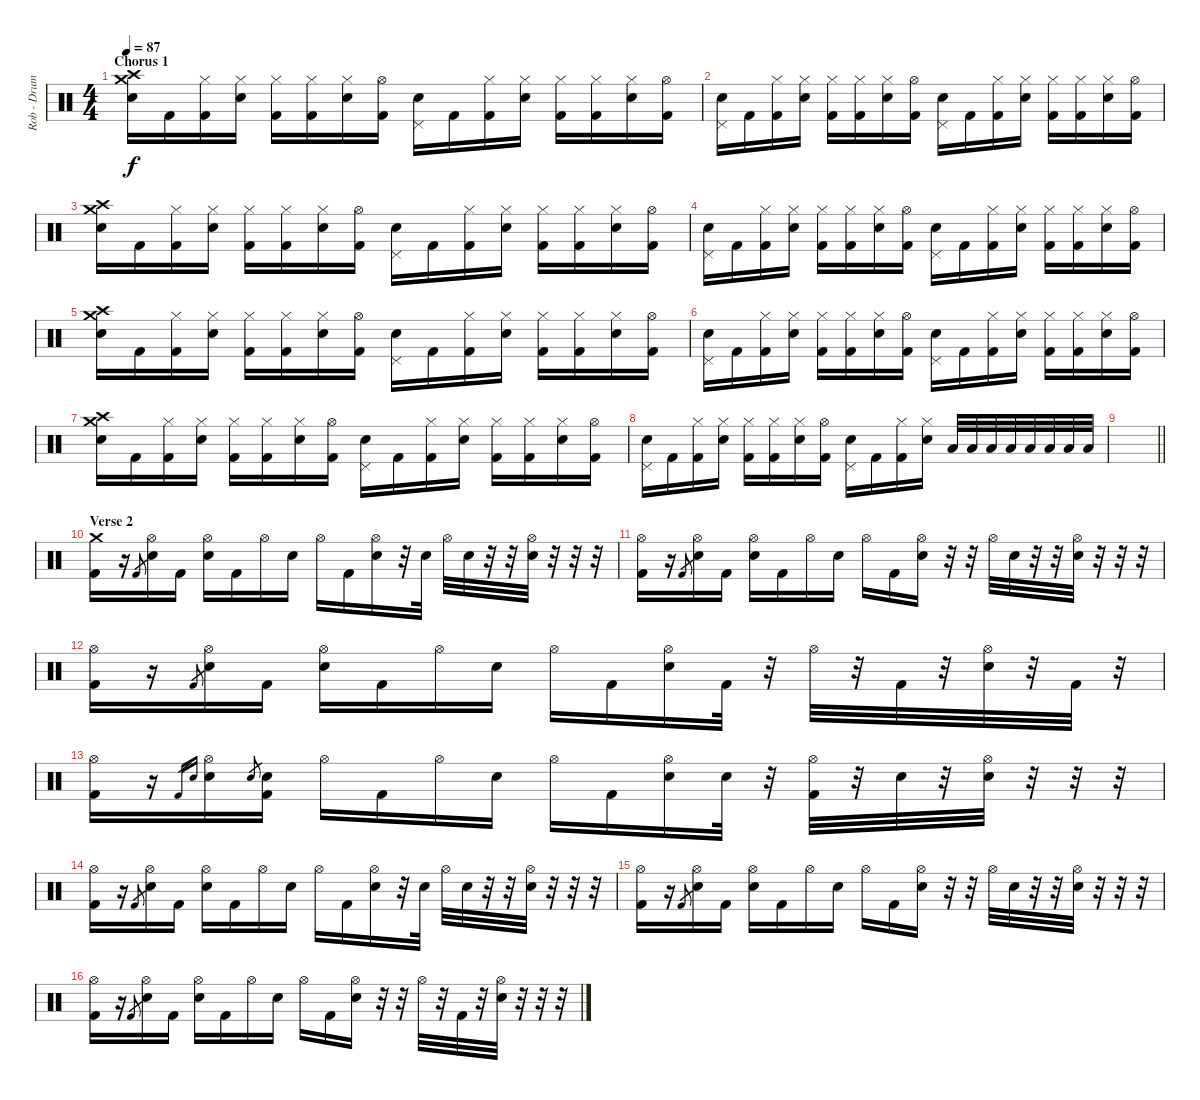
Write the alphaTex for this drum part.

\track ("Rob - Drums" "Rob - Drum") {instrument percussion}
\staff {score}
\articulation defaults
\ts (4 4)
\section ("" "Chorus 1")
\tempo 87
\clef neutral
\ks c
("Crash medium (hit)" "Crash high (hit)" "Electric Snare (hit)").16{dy f} "Kick (hit) 2".16 ("Hi-Hat (closed)" "Kick (hit) 2").16 ("Hi-Hat (closed)" "Electric Snare (hit)").16 ("Hi-Hat (closed)" "Kick (hit) 2").16 ("Hi-Hat (closed)" "Kick (hit) 2").16 ("Hi-Hat (closed)" "Electric Snare (hit)").16 ("Hi-Hat (open)" "Kick (hit) 2").16 ("Pedal Hi-Hat (hit)" "Electric Snare (hit)").16 "Kick (hit) 2".16 ("Hi-Hat (closed)" "Kick (hit) 2").16 ("Hi-Hat (closed)" "Electric Snare (hit)").16 ("Hi-Hat (closed)" "Kick (hit) 2").16 ("Hi-Hat (closed)" "Kick (hit) 2").16 ("Hi-Hat (closed)" "Electric Snare (hit)").16 ("Hi-Hat (open)" "Kick (hit) 2").16 |
("Pedal Hi-Hat (hit)" "Electric Snare (hit)").16 "Kick (hit) 2".16 ("Hi-Hat (closed)" "Kick (hit) 2").16 ("Hi-Hat (closed)" "Electric Snare (hit)").16 ("Hi-Hat (closed)" "Kick (hit) 2").16 ("Hi-Hat (closed)" "Kick (hit) 2").16 ("Hi-Hat (closed)" "Electric Snare (hit)").16 ("Hi-Hat (open)" "Kick (hit) 2").16 ("Pedal Hi-Hat (hit)" "Electric Snare (hit)").16 "Kick (hit) 2".16 ("Hi-Hat (closed)" "Kick (hit) 2").16 ("Hi-Hat (closed)" "Electric Snare (hit)").16 ("Hi-Hat (closed)" "Kick (hit) 2").16 ("Hi-Hat (closed)" "Kick (hit) 2").16 ("Hi-Hat (closed)" "Electric Snare (hit)").16 ("Hi-Hat (open)" "Kick (hit) 2").16 |
("Crash medium (hit)" "Crash high (hit)" "Electric Snare (hit)").16 "Kick (hit) 2".16 ("Hi-Hat (closed)" "Kick (hit) 2").16 ("Hi-Hat (closed)" "Electric Snare (hit)").16 ("Hi-Hat (closed)" "Kick (hit) 2").16 ("Hi-Hat (closed)" "Kick (hit) 2").16 ("Hi-Hat (closed)" "Electric Snare (hit)").16 ("Hi-Hat (open)" "Kick (hit) 2").16 ("Pedal Hi-Hat (hit)" "Electric Snare (hit)").16 "Kick (hit) 2".16 ("Hi-Hat (closed)" "Kick (hit) 2").16 ("Hi-Hat (closed)" "Electric Snare (hit)").16 ("Hi-Hat (closed)" "Kick (hit) 2").16 ("Hi-Hat (closed)" "Kick (hit) 2").16 ("Hi-Hat (closed)" "Electric Snare (hit)").16 ("Hi-Hat (open)" "Kick (hit) 2").16 |
("Pedal Hi-Hat (hit)" "Electric Snare (hit)").16 "Kick (hit) 2".16 ("Hi-Hat (closed)" "Kick (hit) 2").16 ("Hi-Hat (closed)" "Electric Snare (hit)").16 ("Hi-Hat (closed)" "Kick (hit) 2").16 ("Hi-Hat (closed)" "Kick (hit) 2").16 ("Hi-Hat (closed)" "Electric Snare (hit)").16 ("Hi-Hat (open)" "Kick (hit) 2").16 ("Pedal Hi-Hat (hit)" "Electric Snare (hit)").16 "Kick (hit) 2".16 ("Hi-Hat (closed)" "Kick (hit) 2").16 ("Hi-Hat (closed)" "Electric Snare (hit)").16 ("Hi-Hat (closed)" "Kick (hit) 2").16 ("Hi-Hat (closed)" "Kick (hit) 2").16 ("Hi-Hat (closed)" "Electric Snare (hit)").16 ("Hi-Hat (open)" "Kick (hit) 2").16 |
("Crash medium (hit)" "Crash high (hit)" "Electric Snare (hit)").16 "Kick (hit) 2".16 ("Hi-Hat (closed)" "Kick (hit) 2").16 ("Hi-Hat (closed)" "Electric Snare (hit)").16 ("Hi-Hat (closed)" "Kick (hit) 2").16 ("Hi-Hat (closed)" "Kick (hit) 2").16 ("Hi-Hat (closed)" "Electric Snare (hit)").16 ("Hi-Hat (open)" "Kick (hit) 2").16 ("Pedal Hi-Hat (hit)" "Electric Snare (hit)").16 "Kick (hit) 2".16 ("Hi-Hat (closed)" "Kick (hit) 2").16 ("Hi-Hat (closed)" "Electric Snare (hit)").16 ("Hi-Hat (closed)" "Kick (hit) 2").16 ("Hi-Hat (closed)" "Kick (hit) 2").16 ("Hi-Hat (closed)" "Electric Snare (hit)").16 ("Hi-Hat (open)" "Kick (hit) 2").16 |
("Pedal Hi-Hat (hit)" "Electric Snare (hit)").16 "Kick (hit) 2".16 ("Hi-Hat (closed)" "Kick (hit) 2").16 ("Hi-Hat (closed)" "Electric Snare (hit)").16 ("Hi-Hat (closed)" "Kick (hit) 2").16 ("Hi-Hat (closed)" "Kick (hit) 2").16 ("Hi-Hat (closed)" "Electric Snare (hit)").16 ("Hi-Hat (open)" "Kick (hit) 2").16 ("Pedal Hi-Hat (hit)" "Electric Snare (hit)").16 "Kick (hit) 2".16 ("Hi-Hat (closed)" "Kick (hit) 2").16 ("Hi-Hat (closed)" "Electric Snare (hit)").16 ("Hi-Hat (closed)" "Kick (hit) 2").16 ("Hi-Hat (closed)" "Kick (hit) 2").16 ("Hi-Hat (closed)" "Electric Snare (hit)").16 ("Hi-Hat (open)" "Kick (hit) 2").16 |
("Crash medium (hit)" "Crash high (hit)" "Electric Snare (hit)").16 "Kick (hit) 2".16 ("Hi-Hat (closed)" "Kick (hit) 2").16 ("Hi-Hat (closed)" "Electric Snare (hit)").16 ("Hi-Hat (closed)" "Kick (hit) 2").16 ("Hi-Hat (closed)" "Kick (hit) 2").16 ("Hi-Hat (closed)" "Electric Snare (hit)").16 ("Hi-Hat (open)" "Kick (hit) 2").16 ("Pedal Hi-Hat (hit)" "Electric Snare (hit)").16 "Kick (hit) 2".16 ("Hi-Hat (closed)" "Kick (hit) 2").16 ("Hi-Hat (closed)" "Electric Snare (hit)").16 ("Hi-Hat (closed)" "Kick (hit) 2").16 ("Hi-Hat (closed)" "Kick (hit) 2").16 ("Hi-Hat (closed)" "Electric Snare (hit)").16 ("Hi-Hat (open)" "Kick (hit) 2").16 |
("Pedal Hi-Hat (hit)" "Electric Snare (hit)").16 "Kick (hit) 2".16 ("Hi-Hat (closed)" "Kick (hit) 2").16 ("Hi-Hat (closed)" "Electric Snare (hit)").16 ("Hi-Hat (closed)" "Kick (hit) 2").16 ("Hi-Hat (closed)" "Kick (hit) 2").16 ("Hi-Hat (closed)" "Electric Snare (hit)").16 ("Hi-Hat (open)" "Kick (hit) 2").16 ("Pedal Hi-Hat (hit)" "Electric Snare (hit)").16 "Kick (hit) 2".16 ("Hi-Hat (closed)" "Kick (hit) 2").16 ("Hi-Hat (closed)" "Electric Snare (hit)").16 "Low Tom (hit)".32 "Low Tom (hit)".32 "Low Tom (hit)".32 "Low Tom (hit)".32 "Low Tom (hit)".32 "Low Tom (hit)".32 "Low Tom (hit)".32 "Low Tom (hit)".32 |
\barLineRight lightlight
|
\section ("" "Verse 2")
("Crash medium (hit)" "Kick (hit) 2").16 r.16 "Kick (hit) 2".8{gr} ("Hi-Hat (open)" "Electric Snare (hit)").16 "Kick (hit) 2".16 ("Hi-Hat (open)" "Electric Snare (hit)").16 "Kick (hit) 2".16 "Hi-Hat (open)".16 "Electric Snare (hit)".16 "Hi-Hat (open)".16 "Kick (hit) 2".16 ("Hi-Hat (open)" "Electric Snare (hit)").16 r.32 "Electric Snare (hit)".32 "Hi-Hat (open)".32 "Electric Snare (hit)".32 r.32 r.32 ("Hi-Hat (open)" "Electric Snare (hit)").32 r.32 r.32 r.32 |
("Hi-Hat (open)" "Kick (hit) 2").16 r.16 "Kick (hit) 2".8{gr} ("Hi-Hat (open)" "Electric Snare (hit)").16 "Kick (hit) 2".16 ("Hi-Hat (open)" "Electric Snare (hit)").16 "Kick (hit) 2".16 "Hi-Hat (open)".16 "Electric Snare (hit)".16 "Hi-Hat (open)".16 "Kick (hit) 2".16 ("Hi-Hat (open)" "Electric Snare (hit)").16 r.32 r.32 "Hi-Hat (open)".32 "Electric Snare (hit)".32 r.32 r.32 ("Hi-Hat (open)" "Electric Snare (hit)").32 r.32 r.32 r.32 |
("Hi-Hat (open)" "Kick (hit) 2").16 r.16 "Kick (hit) 2".8{gr} ("Hi-Hat (open)" "Electric Snare (hit)").16 "Kick (hit) 2".16 ("Hi-Hat (open)" "Electric Snare (hit)").16 "Kick (hit) 2".16 "Hi-Hat (open)".16 "Electric Snare (hit)".16 "Hi-Hat (open)".16 "Kick (hit) 2".16 ("Hi-Hat (open)" "Electric Snare (hit)").16 "Kick (hit) 2".32 r.32 "Hi-Hat (open)".32 r.32 "Kick (hit) 2".32 r.32 ("Hi-Hat (open)" "Electric Snare (hit)").32 r.32 "Kick (hit) 2".32 r.32 |
("Hi-Hat (open)" "Kick (hit) 2").16 r.16 "Kick (hit) 2".16{gr} "Electric Snare (hit)".16{gr} ("Hi-Hat (open)" "Electric Snare (hit)").16 "Electric Snare (hit)".8{gr} ("Electric Snare (hit)" "Kick (hit) 2").16 "Hi-Hat (open)".16 "Kick (hit) 2".16 "Hi-Hat (open)".16 "Electric Snare (hit)".16 "Hi-Hat (open)".16 "Kick (hit) 2".16 ("Hi-Hat (open)" "Electric Snare (hit)").16 "Electric Snare (hit)".32 r.32 ("Hi-Hat (open)" "Kick (hit) 2").32 r.32 "Electric Snare (hit)".32 r.32 ("Hi-Hat (open)" "Electric Snare (hit)").32 r.32 r.32 r.32 |
("Hi-Hat (open)" "Kick (hit) 2").16 r.16 "Kick (hit) 2".8{gr} ("Hi-Hat (open)" "Electric Snare (hit)").16 "Kick (hit) 2".16 ("Hi-Hat (open)" "Electric Snare (hit)").16 "Kick (hit) 2".16 "Hi-Hat (open)".16 "Electric Snare (hit)".16 "Hi-Hat (open)".16 "Kick (hit) 2".16 ("Hi-Hat (open)" "Electric Snare (hit)").16 r.32 "Electric Snare (hit)".32 "Hi-Hat (open)".32 "Electric Snare (hit)".32 r.32 r.32 ("Hi-Hat (open)" "Electric Snare (hit)").32 r.32 r.32 r.32 |
("Hi-Hat (open)" "Kick (hit) 2").16 r.16 "Kick (hit) 2".8{gr} ("Hi-Hat (open)" "Electric Snare (hit)").16 "Kick (hit) 2".16 ("Hi-Hat (open)" "Electric Snare (hit)").16 "Kick (hit) 2".16 "Hi-Hat (open)".16 "Electric Snare (hit)".16 "Hi-Hat (open)".16 "Kick (hit) 2".16 ("Hi-Hat (open)" "Electric Snare (hit)").16 r.32 r.32 "Hi-Hat (open)".32 "Electric Snare (hit)".32 r.32 r.32 ("Hi-Hat (open)" "Electric Snare (hit)").32 r.32 r.32 r.32 |
("Hi-Hat (open)" "Kick (hit) 2").16 r.16 "Kick (hit) 2".8{gr} ("Hi-Hat (open)" "Electric Snare (hit)").16 "Kick (hit) 2".16 ("Hi-Hat (open)" "Electric Snare (hit)").16 "Kick (hit) 2".16 "Hi-Hat (open)".16 "Electric Snare (hit)".16 "Hi-Hat (open)".16 "Kick (hit) 2".16 ("Hi-Hat (open)" "Electric Snare (hit)").16 r.32 r.32 "Hi-Hat (open)".32 r.32 "Kick (hit) 2".32 r.32 ("Hi-Hat (open)" "Electric Snare (hit)").32 r.32 r.32 r.32
